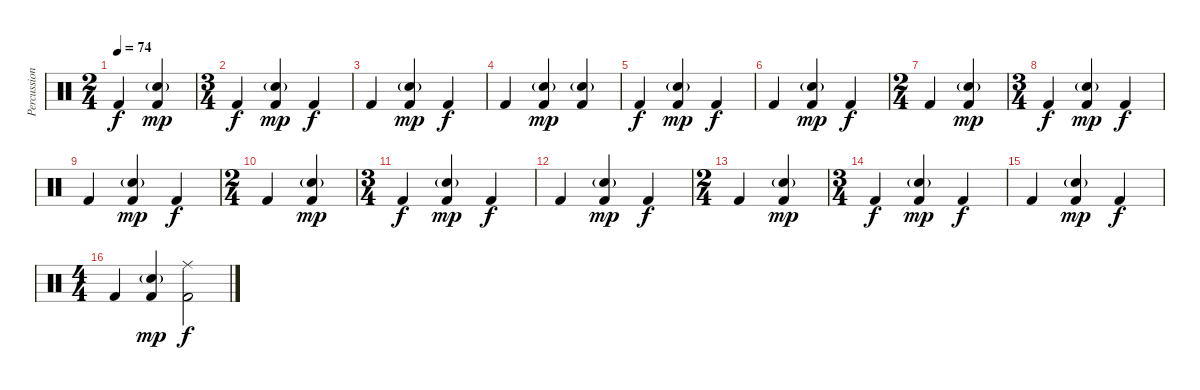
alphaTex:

\track ("Percussion" "Percussion") {instrument percussion}
\staff {score}
\articulation defaults
\ts (2 4)
\tempo 74
\clef neutral
\ks c "Kick (hit) 2".4{dy f}
("Snare (hit) 2"{g} "Kick (hit) 2").4{dy mp} |
\ts (3 4)
"Kick (hit) 2".4{dy f} ("Snare (hit) 2"{g} "Kick (hit) 2").4{dy mp} "Kick (hit) 2".4{dy f} |
"Kick (hit) 2".4 ("Snare (hit) 2"{g} "Kick (hit) 2").4{dy mp} "Kick (hit) 2".4{dy f} |
"Kick (hit) 2".4 ("Snare (hit) 2"{g} "Kick (hit) 2").4{dy mp} ("Snare (hit) 2"{g} "Kick (hit) 2").4 |
"Kick (hit) 2".4{dy f} ("Snare (hit) 2"{g} "Kick (hit) 2").4{dy mp} "Kick (hit) 2".4{dy f} |
"Kick (hit) 2".4 ("Snare (hit) 2"{g} "Kick (hit) 2").4{dy mp} "Kick (hit) 2".4{dy f} |
\ts (2 4)
"Kick (hit) 2".4 ("Snare (hit) 2"{g} "Kick (hit) 2").4{dy mp} |
\ts (3 4)
"Kick (hit) 2".4{dy f} ("Snare (hit) 2"{g} "Kick (hit) 2").4{dy mp} "Kick (hit) 2".4{dy f} |
"Kick (hit) 2".4 ("Snare (hit) 2"{g} "Kick (hit) 2").4{dy mp} "Kick (hit) 2".4{dy f} |
\ts (2 4)
"Kick (hit) 2".4 ("Snare (hit) 2"{g} "Kick (hit) 2").4{dy mp} |
\ts (3 4)
"Kick (hit) 2".4{dy f} ("Snare (hit) 2"{g} "Kick (hit) 2").4{dy mp} "Kick (hit) 2".4{dy f} |
"Kick (hit) 2".4 ("Snare (hit) 2"{g} "Kick (hit) 2").4{dy mp} "Kick (hit) 2".4{dy f} |
\ts (2 4)
"Kick (hit) 2".4 ("Snare (hit) 2"{g} "Kick (hit) 2").4{dy mp} |
\ts (3 4)
"Kick (hit) 2".4{dy f} ("Snare (hit) 2"{g} "Kick (hit) 2").4{dy mp} "Kick (hit) 2".4{dy f} |
"Kick (hit) 2".4 ("Snare (hit) 2"{g} "Kick (hit) 2").4{dy mp} "Kick (hit) 2".4{dy f} |
\ts (4 4)
"Kick (hit) 2".4 ("Snare (hit) 2"{g} "Kick (hit) 2").4{dy mp} ("Ride (middle)" "Kick (hit) 2").2{dy f}
